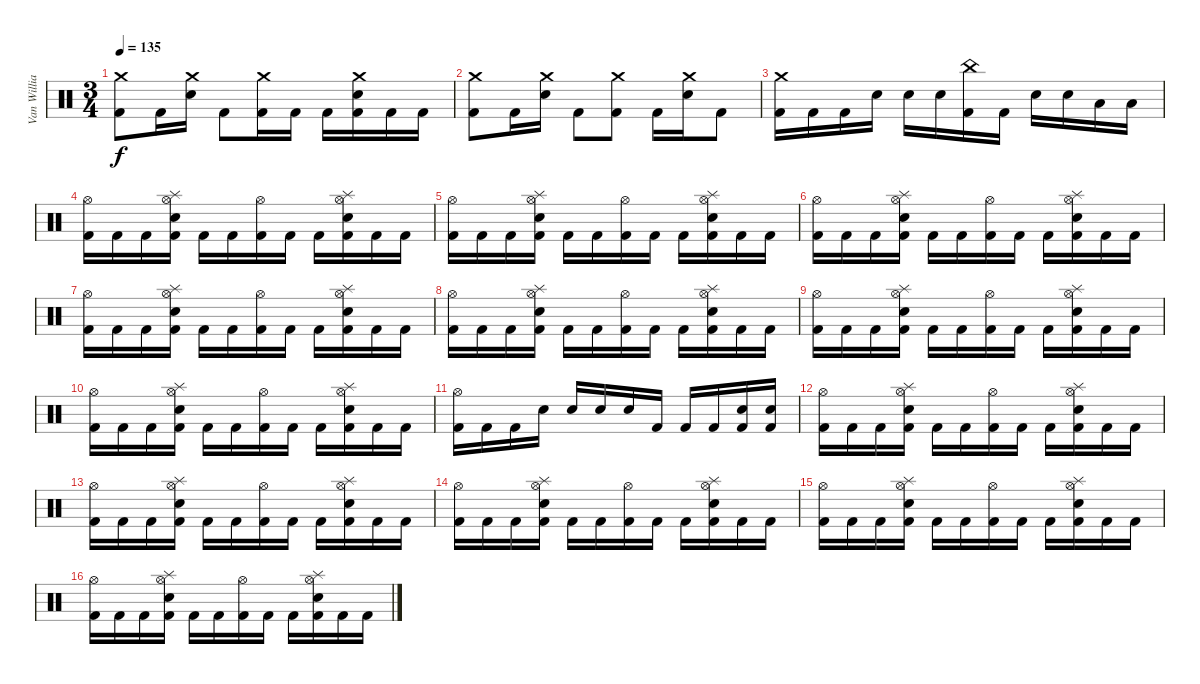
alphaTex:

\track ("Van Williams" "Van Willia") {instrument percussion}
\staff {score}
\articulation defaults
\ts (3 4)
\tempo 135
\clef neutral
\ks c
("Crash medium (hit)" "Kick (hit) 2").8{dy f} "Kick (hit) 2".16 ("Crash medium (hit)" "Electric Snare (hit)").16 "Kick (hit) 2".8 ("Crash medium (hit)" "Kick (hit) 2").16 "Kick (hit) 2".16 "Kick (hit) 2".16 ("Crash medium (hit)" "Electric Snare (hit)" "Kick (hit) 2").16 "Kick (hit) 2".16 "Kick (hit) 2".16 |
("Crash medium (hit)" "Kick (hit) 2").8 "Kick (hit) 2".16 ("Crash medium (hit)" "Electric Snare (hit)").16 "Kick (hit) 2".8 ("Crash medium (hit)" "Kick (hit) 2").8 "Kick (hit) 2".16 ("Crash medium (hit)" "Electric Snare (hit)").16 "Kick (hit) 2".8 |
("Crash medium (hit)" "Kick (hit) 2").16 "Kick (hit) 2".16 "Kick (hit) 2".16 "Electric Snare (hit)".16 "Electric Snare (hit)".16 "Electric Snare (hit)".16 ("China (hit)" "Kick (hit) 2").16 "Kick (hit) 2".16 "Electric Snare (hit)".16 "Electric Snare (hit)".16 "Low Floor Tom (hit)".16 "Low Floor Tom (hit)".16 |
("Hi-Hat (open)" "Kick (hit) 2").16 "Kick (hit) 2".16 "Kick (hit) 2".16 ("Hi-Hat (open)" "Splash (hit)" "Electric Snare (hit)" "Kick (hit) 2").16 "Kick (hit) 2".16 "Kick (hit) 2".16 ("Hi-Hat (open)" "Kick (hit) 2").16 "Kick (hit) 2".16 "Kick (hit) 2".16 ("Hi-Hat (open)" "Splash (hit)" "Electric Snare (hit)" "Kick (hit) 2").16 "Kick (hit) 2".16 "Kick (hit) 2".16 |
("Hi-Hat (open)" "Kick (hit) 2").16 "Kick (hit) 2".16 "Kick (hit) 2".16 ("Hi-Hat (open)" "Splash (hit)" "Electric Snare (hit)" "Kick (hit) 2").16 "Kick (hit) 2".16 "Kick (hit) 2".16 ("Hi-Hat (open)" "Kick (hit) 2").16 "Kick (hit) 2".16 "Kick (hit) 2".16 ("Hi-Hat (open)" "Splash (hit)" "Electric Snare (hit)" "Kick (hit) 2").16 "Kick (hit) 2".16 "Kick (hit) 2".16 |
("Hi-Hat (open)" "Kick (hit) 2").16 "Kick (hit) 2".16 "Kick (hit) 2".16 ("Hi-Hat (open)" "Splash (hit)" "Electric Snare (hit)" "Kick (hit) 2").16 "Kick (hit) 2".16 "Kick (hit) 2".16 ("Hi-Hat (open)" "Kick (hit) 2").16 "Kick (hit) 2".16 "Kick (hit) 2".16 ("Hi-Hat (open)" "Splash (hit)" "Electric Snare (hit)" "Kick (hit) 2").16 "Kick (hit) 2".16 "Kick (hit) 2".16 |
("Hi-Hat (open)" "Kick (hit) 2").16 "Kick (hit) 2".16 "Kick (hit) 2".16 ("Hi-Hat (open)" "Splash (hit)" "Electric Snare (hit)" "Kick (hit) 2").16 "Kick (hit) 2".16 "Kick (hit) 2".16 ("Hi-Hat (open)" "Kick (hit) 2").16 "Kick (hit) 2".16 "Kick (hit) 2".16 ("Hi-Hat (open)" "Splash (hit)" "Electric Snare (hit)" "Kick (hit) 2").16 "Kick (hit) 2".16 "Kick (hit) 2".16 |
("Hi-Hat (open)" "Kick (hit) 2").16 "Kick (hit) 2".16 "Kick (hit) 2".16 ("Hi-Hat (open)" "Splash (hit)" "Electric Snare (hit)" "Kick (hit) 2").16 "Kick (hit) 2".16 "Kick (hit) 2".16 ("Hi-Hat (open)" "Kick (hit) 2").16 "Kick (hit) 2".16 "Kick (hit) 2".16 ("Hi-Hat (open)" "Splash (hit)" "Electric Snare (hit)" "Kick (hit) 2").16 "Kick (hit) 2".16 "Kick (hit) 2".16 |
("Hi-Hat (open)" "Kick (hit) 2").16 "Kick (hit) 2".16 "Kick (hit) 2".16 ("Hi-Hat (open)" "Splash (hit)" "Electric Snare (hit)" "Kick (hit) 2").16 "Kick (hit) 2".16 "Kick (hit) 2".16 ("Hi-Hat (open)" "Kick (hit) 2").16 "Kick (hit) 2".16 "Kick (hit) 2".16 ("Hi-Hat (open)" "Splash (hit)" "Electric Snare (hit)" "Kick (hit) 2").16 "Kick (hit) 2".16 "Kick (hit) 2".16 |
("Hi-Hat (open)" "Kick (hit) 2").16 "Kick (hit) 2".16 "Kick (hit) 2".16 ("Hi-Hat (open)" "Splash (hit)" "Electric Snare (hit)" "Kick (hit) 2").16 "Kick (hit) 2".16 "Kick (hit) 2".16 ("Hi-Hat (open)" "Kick (hit) 2").16 "Kick (hit) 2".16 "Kick (hit) 2".16 ("Hi-Hat (open)" "Splash (hit)" "Electric Snare (hit)" "Kick (hit) 2").16 "Kick (hit) 2".16 "Kick (hit) 2".16 |
("Hi-Hat (open)" "Kick (hit) 2").16 "Kick (hit) 2".16 "Kick (hit) 2".16 "Electric Snare (hit)".16 "Electric Snare (hit)".16 "Electric Snare (hit)".16 "Electric Snare (hit)".16 "Kick (hit) 2".16 "Kick (hit) 2".16 "Kick (hit) 2".16 ("Electric Snare (hit)" "Kick (hit) 2").16 ("Electric Snare (hit)" "Kick (hit) 2").16 |
("Hi-Hat (open)" "Kick (hit) 2").16 "Kick (hit) 2".16 "Kick (hit) 2".16 ("Hi-Hat (open)" "Splash (hit)" "Electric Snare (hit)" "Kick (hit) 2").16 "Kick (hit) 2".16 "Kick (hit) 2".16 ("Hi-Hat (open)" "Kick (hit) 2").16 "Kick (hit) 2".16 "Kick (hit) 2".16 ("Hi-Hat (open)" "Splash (hit)" "Electric Snare (hit)" "Kick (hit) 2").16 "Kick (hit) 2".16 "Kick (hit) 2".16 |
("Hi-Hat (open)" "Kick (hit) 2").16 "Kick (hit) 2".16 "Kick (hit) 2".16 ("Hi-Hat (open)" "Splash (hit)" "Electric Snare (hit)" "Kick (hit) 2").16 "Kick (hit) 2".16 "Kick (hit) 2".16 ("Hi-Hat (open)" "Kick (hit) 2").16 "Kick (hit) 2".16 "Kick (hit) 2".16 ("Hi-Hat (open)" "Splash (hit)" "Electric Snare (hit)" "Kick (hit) 2").16 "Kick (hit) 2".16 "Kick (hit) 2".16 |
("Hi-Hat (open)" "Kick (hit) 2").16 "Kick (hit) 2".16 "Kick (hit) 2".16 ("Hi-Hat (open)" "Splash (hit)" "Electric Snare (hit)" "Kick (hit) 2").16 "Kick (hit) 2".16 "Kick (hit) 2".16 ("Hi-Hat (open)" "Kick (hit) 2").16 "Kick (hit) 2".16 "Kick (hit) 2".16 ("Hi-Hat (open)" "Splash (hit)" "Electric Snare (hit)" "Kick (hit) 2").16 "Kick (hit) 2".16 "Kick (hit) 2".16 |
("Hi-Hat (open)" "Kick (hit) 2").16 "Kick (hit) 2".16 "Kick (hit) 2".16 ("Hi-Hat (open)" "Splash (hit)" "Electric Snare (hit)" "Kick (hit) 2").16 "Kick (hit) 2".16 "Kick (hit) 2".16 ("Hi-Hat (open)" "Kick (hit) 2").16 "Kick (hit) 2".16 "Kick (hit) 2".16 ("Hi-Hat (open)" "Splash (hit)" "Electric Snare (hit)" "Kick (hit) 2").16 "Kick (hit) 2".16 "Kick (hit) 2".16 |
("Hi-Hat (open)" "Kick (hit) 2").16 "Kick (hit) 2".16 "Kick (hit) 2".16 ("Hi-Hat (open)" "Splash (hit)" "Electric Snare (hit)" "Kick (hit) 2").16 "Kick (hit) 2".16 "Kick (hit) 2".16 ("Hi-Hat (open)" "Kick (hit) 2").16 "Kick (hit) 2".16 "Kick (hit) 2".16 ("Hi-Hat (open)" "Splash (hit)" "Electric Snare (hit)" "Kick (hit) 2").16 "Kick (hit) 2".16 "Kick (hit) 2".16
